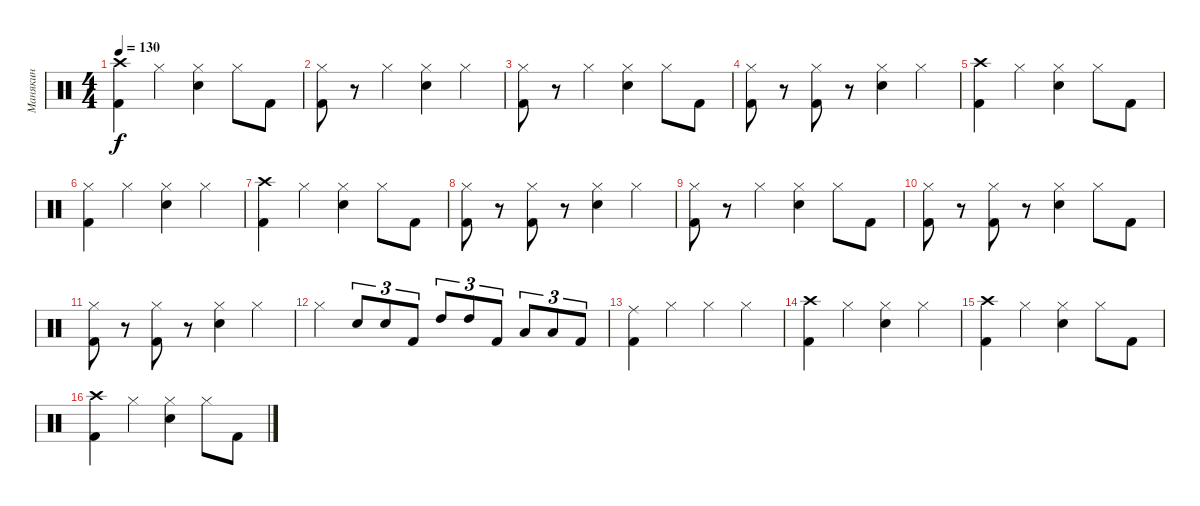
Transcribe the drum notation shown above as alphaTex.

\track ("Манякин" "Манякин") {instrument percussion}
\staff {score}
\articulation defaults
\ts (4 4)
\tempo 130
\clef neutral
\ks c
("Crash high (hit)" "Kick (hit) 2").4{dy f} "Hi-Hat (closed)".4 ("Hi-Hat (closed)" "Electric Snare (hit)").4 "Hi-Hat (closed)".8 "Kick (hit) 2".8 |
("Hi-Hat (closed)" "Kick (hit) 2").8 r.8 "Hi-Hat (closed)".4 ("Hi-Hat (closed)" "Electric Snare (hit)").4 "Hi-Hat (closed)".4 |
("Hi-Hat (closed)" "Kick (hit) 2").8 r.8 "Hi-Hat (closed)".4 ("Hi-Hat (closed)" "Electric Snare (hit)").4 "Hi-Hat (closed)".8 "Kick (hit) 2".8 |
("Hi-Hat (closed)" "Kick (hit) 2").8 r.8 ("Hi-Hat (closed)" "Kick (hit) 2").8 r.8 ("Hi-Hat (closed)" "Electric Snare (hit)").4 "Hi-Hat (closed)".4 |
("Crash high (hit)" "Kick (hit) 2").4 "Hi-Hat (closed)".4 ("Hi-Hat (closed)" "Electric Snare (hit)").4 "Hi-Hat (closed)".8 "Kick (hit) 2".8 |
("Hi-Hat (closed)" "Kick (hit) 2").4 "Hi-Hat (closed)".4 ("Hi-Hat (closed)" "Electric Snare (hit)").4 "Hi-Hat (closed)".4 |
("Crash high (hit)" "Kick (hit) 2").4 "Hi-Hat (closed)".4 ("Hi-Hat (closed)" "Electric Snare (hit)").4 "Hi-Hat (closed)".8 "Kick (hit) 2".8 |
("Hi-Hat (closed)" "Kick (hit) 2").8 r.8 ("Hi-Hat (closed)" "Kick (hit) 2").8 r.8 ("Hi-Hat (closed)" "Electric Snare (hit)").4 "Hi-Hat (closed)".4 |
("Hi-Hat (closed)" "Kick (hit) 2").8 r.8 "Hi-Hat (closed)".4 ("Hi-Hat (closed)" "Electric Snare (hit)").4 "Hi-Hat (closed)".8 "Kick (hit) 2".8 |
("Hi-Hat (closed)" "Kick (hit) 2").8 r.8 ("Hi-Hat (closed)" "Kick (hit) 2").8 r.8 ("Hi-Hat (closed)" "Electric Snare (hit)").4 "Hi-Hat (closed)".8 "Kick (hit) 2".8 |
("Hi-Hat (closed)" "Kick (hit) 2").8 r.8 ("Hi-Hat (closed)" "Kick (hit) 2").8 r.8 ("Hi-Hat (closed)" "Electric Snare (hit)").4 "Hi-Hat (closed)".4 |
"Hi-Hat (closed)".4 "Electric Snare (hit)".8{tu (3 2)} "Electric Snare (hit)".8{tu (3 2)} "Kick (hit) 2".8{tu (3 2)} "High Tom (hit)".8{tu (3 2)} "High Tom (hit)".8{tu (3 2)} "Kick (hit) 2".8{tu (3 2)} "Low Tom (hit)".8{tu (3 2)} "Low Tom (hit)".8{tu (3 2)} "Kick (hit) 2".8{tu (3 2)} |
("Ride (middle)" "Kick (hit) 2").4 "Hi-Hat (closed)".4 "Hi-Hat (closed)".4 "Hi-Hat (closed)".4 |
("Crash high (hit)" "Kick (hit) 2").4 "Hi-Hat (closed)".4 ("Hi-Hat (closed)" "Electric Snare (hit)").4 "Hi-Hat (closed)".4 |
("Crash high (hit)" "Kick (hit) 2").4 "Hi-Hat (closed)".4 ("Hi-Hat (closed)" "Electric Snare (hit)").4 "Hi-Hat (closed)".8 "Kick (hit) 2".8 |
("Crash high (hit)" "Kick (hit) 2").4 "Hi-Hat (closed)".4 ("Hi-Hat (closed)" "Electric Snare (hit)").4 "Hi-Hat (closed)".8 "Kick (hit) 2".8
